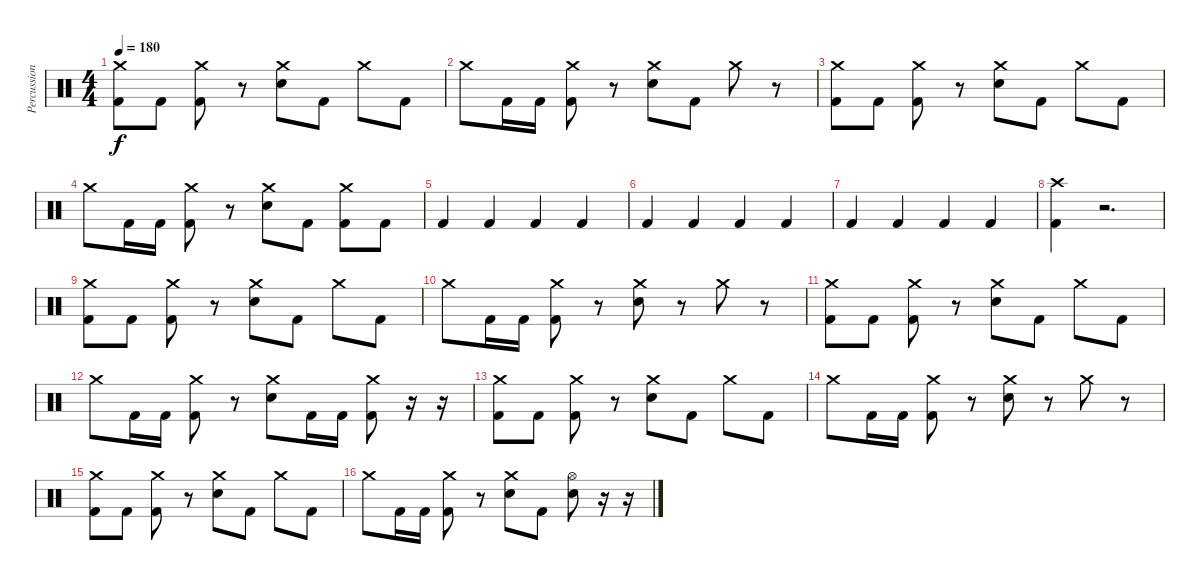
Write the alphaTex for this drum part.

\track ("Percussion" "Percussion") {instrument percussion}
\staff {score}
\articulation defaults
\ts (4 4)
\tempo 180
\clef neutral
\ks c
("Crash medium (hit)" "Kick (hit) 2").8{dy f} "Kick (hit) 2".8 ("Crash medium (hit)" "Kick (hit) 2").8 r.8 ("Crash medium (hit)" "Snare (hit) 2").8 "Kick (hit) 2".8 "Crash medium (hit)".8 "Kick (hit) 2".8 |
"Crash medium (hit)".8 "Kick (hit) 2".16 "Kick (hit) 2".16 ("Crash medium (hit)" "Kick (hit) 2").8 r.8 ("Crash medium (hit)" "Snare (hit) 2").8 "Kick (hit) 2".8 "Crash medium (hit)".8 r.8 |
("Crash medium (hit)" "Kick (hit) 2").8 "Kick (hit) 2".8 ("Crash medium (hit)" "Kick (hit) 2").8 r.8 ("Crash medium (hit)" "Snare (hit) 2").8 "Kick (hit) 2".8 "Crash medium (hit)".8 "Kick (hit) 2".8 |
"Crash medium (hit)".8 "Kick (hit) 2".16 "Kick (hit) 2".16 ("Crash medium (hit)" "Kick (hit) 2").8 r.8 ("Crash medium (hit)" "Snare (hit) 2").8 "Kick (hit) 2".8 ("Crash medium (hit)" "Kick (hit) 2").8 "Kick (hit) 2".8 |
"Kick (hit) 2".4 "Kick (hit) 2".4 "Kick (hit) 2".4 "Kick (hit) 2".4 |
"Kick (hit) 2".4 "Kick (hit) 2".4 "Kick (hit) 2".4 "Kick (hit) 2".4 |
"Kick (hit) 2".4 "Kick (hit) 2".4 "Kick (hit) 2".4 "Kick (hit) 2".4 |
("Crash high (hit)" "Kick (hit) 2").4 r.2{d} |
("Crash medium (hit)" "Kick (hit) 2").8 "Kick (hit) 2".8 ("Crash medium (hit)" "Kick (hit) 2").8 r.8 ("Crash medium (hit)" "Snare (hit) 2").8 "Kick (hit) 2".8 "Crash medium (hit)".8 "Kick (hit) 2".8 |
"Crash medium (hit)".8 "Kick (hit) 2".16 "Kick (hit) 2".16 ("Crash medium (hit)" "Kick (hit) 2").8 r.8 ("Crash medium (hit)" "Snare (hit) 2").8 r.8 "Crash medium (hit)".8 r.8 |
("Crash medium (hit)" "Kick (hit) 2").8 "Kick (hit) 2".8 ("Crash medium (hit)" "Kick (hit) 2").8 r.8 ("Crash medium (hit)" "Snare (hit) 2").8 "Kick (hit) 2".8 "Crash medium (hit)".8 "Kick (hit) 2".8 |
"Crash medium (hit)".8 "Kick (hit) 2".16 "Kick (hit) 2".16 ("Crash medium (hit)" "Kick (hit) 2").8 r.8 ("Crash medium (hit)" "Snare (hit) 2").8 "Kick (hit) 2".16 "Kick (hit) 2".16 ("Crash medium (hit)" "Kick (hit) 2").8 r.16 r.16 |
("Crash medium (hit)" "Kick (hit) 2").8 "Kick (hit) 2".8 ("Crash medium (hit)" "Kick (hit) 2").8 r.8 ("Crash medium (hit)" "Snare (hit) 2").8 "Kick (hit) 2".8 "Crash medium (hit)".8 "Kick (hit) 2".8 |
"Crash medium (hit)".8 "Kick (hit) 2".16 "Kick (hit) 2".16 ("Crash medium (hit)" "Kick (hit) 2").8 r.8 ("Crash medium (hit)" "Snare (hit) 2").8 r.8 "Crash medium (hit)".8 r.8 |
("Crash medium (hit)" "Kick (hit) 2").8 "Kick (hit) 2".8 ("Crash medium (hit)" "Kick (hit) 2").8 r.8 ("Crash medium (hit)" "Snare (hit) 2").8 "Kick (hit) 2".8 "Crash medium (hit)".8 "Kick (hit) 2".8 |
"Crash medium (hit)".8 "Kick (hit) 2".16 "Kick (hit) 2".16 ("Crash medium (hit)" "Kick (hit) 2").8 r.8 ("Crash medium (hit)" "Snare (hit) 2").8 "Kick (hit) 2".8 ("Hi-Hat (open)" "Snare (hit) 2").8 r.16 r.16
